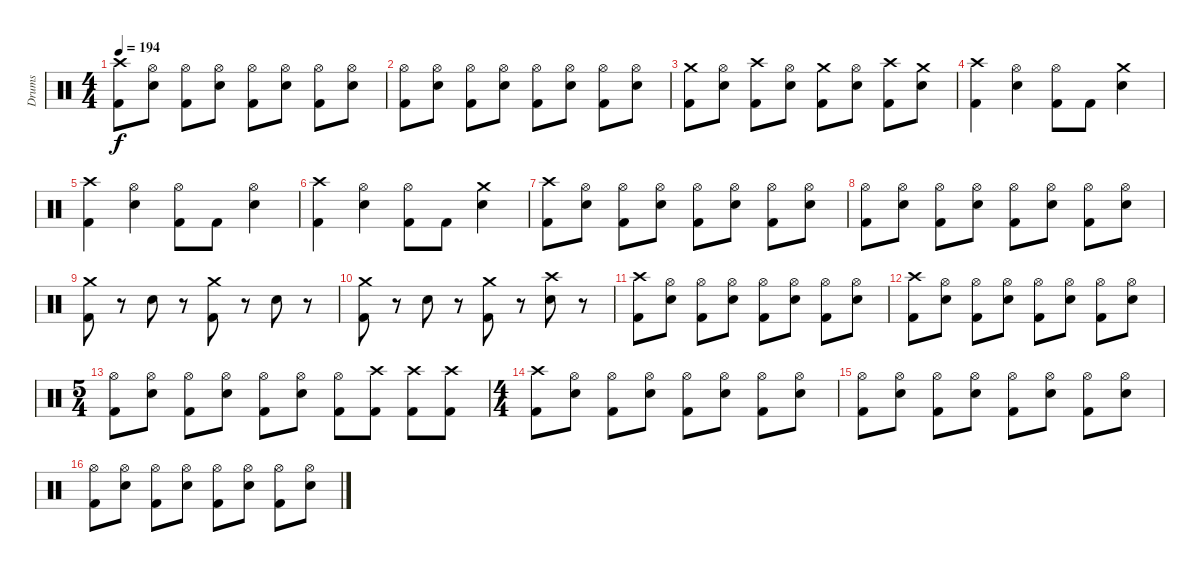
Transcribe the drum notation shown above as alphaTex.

\track ("Drums" "Drums") {instrument percussion}
\staff {score}
\articulation defaults
\ts (4 4)
\tempo 194
\clef neutral
\ks c
("Crash high (hit)" "Kick (hit) 2").8{dy f} ("Hi-Hat (open)" "Snare (hit) 2").8 ("Hi-Hat (open)" "Kick (hit) 2").8 ("Hi-Hat (open)" "Snare (hit) 2").8 ("Hi-Hat (open)" "Kick (hit) 2").8 ("Hi-Hat (open)" "Snare (hit) 2").8 ("Hi-Hat (open)" "Kick (hit) 2").8 ("Hi-Hat (open)" "Snare (hit) 2").8 |
("Hi-Hat (open)" "Kick (hit) 2").8 ("Hi-Hat (open)" "Snare (hit) 2").8 ("Hi-Hat (open)" "Kick (hit) 2").8 ("Hi-Hat (open)" "Snare (hit) 2").8 ("Hi-Hat (open)" "Kick (hit) 2").8 ("Hi-Hat (open)" "Snare (hit) 2").8 ("Hi-Hat (open)" "Kick (hit) 2").8 ("Hi-Hat (open)" "Snare (hit) 2").8 |
("Crash medium (hit)" "Kick (hit) 2").8 ("Hi-Hat (open)" "Snare (hit) 2").8 ("Crash high (hit)" "Kick (hit) 2").8 ("Hi-Hat (open)" "Snare (hit) 2").8 ("Crash medium (hit)" "Kick (hit) 2").8 ("Hi-Hat (open)" "Snare (hit) 2").8 ("Crash high (hit)" "Kick (hit) 2").8 ("Crash medium (hit)" "Snare (hit) 2").8 |
("Crash high (hit)" "Kick (hit) 2").4 ("Hi-Hat (open)" "Snare (hit) 2").4 ("Hi-Hat (open)" "Kick (hit) 2").8 "Kick (hit) 2".8 ("Crash medium (hit)" "Snare (hit) 2").4 |
("Crash high (hit)" "Kick (hit) 2").4 ("Hi-Hat (open)" "Snare (hit) 2").4 ("Hi-Hat (open)" "Kick (hit) 2").8 "Kick (hit) 2".8 ("Hi-Hat (open)" "Snare (hit) 2").4 |
("Crash high (hit)" "Kick (hit) 2").4 ("Hi-Hat (open)" "Snare (hit) 2").4 ("Hi-Hat (open)" "Kick (hit) 2").8 "Kick (hit) 2".8 ("Crash medium (hit)" "Snare (hit) 2").4 |
("Crash high (hit)" "Kick (hit) 2").8 ("Hi-Hat (open)" "Snare (hit) 2").8 ("Hi-Hat (open)" "Kick (hit) 2").8 ("Hi-Hat (open)" "Snare (hit) 2").8 ("Hi-Hat (open)" "Kick (hit) 2").8 ("Hi-Hat (open)" "Snare (hit) 2").8 ("Hi-Hat (open)" "Kick (hit) 2").8 ("Hi-Hat (open)" "Snare (hit) 2").8 |
("Hi-Hat (open)" "Kick (hit) 2").8 ("Hi-Hat (open)" "Snare (hit) 2").8 ("Hi-Hat (open)" "Kick (hit) 2").8 ("Hi-Hat (open)" "Snare (hit) 2").8 ("Hi-Hat (open)" "Kick (hit) 2").8 ("Hi-Hat (open)" "Snare (hit) 2").8 ("Hi-Hat (open)" "Kick (hit) 2").8 ("Hi-Hat (open)" "Snare (hit) 2").8 |
("Crash medium (hit)" "Kick (hit) 2").8 r.8 "Snare (hit) 2".8 r.8 ("Crash medium (hit)" "Kick (hit) 2").8 r.8 "Snare (hit) 2".8 r.8 |
("Crash medium (hit)" "Kick (hit) 2").8 r.8 "Snare (hit) 2".8 r.8 ("Crash medium (hit)" "Kick (hit) 2").8 r.8 ("Crash high (hit)" "Snare (hit) 2").8 r.8 |
("Crash high (hit)" "Kick (hit) 2").8 ("Hi-Hat (open)" "Snare (hit) 2").8 ("Hi-Hat (open)" "Kick (hit) 2").8 ("Hi-Hat (open)" "Snare (hit) 2").8 ("Hi-Hat (open)" "Kick (hit) 2").8 ("Hi-Hat (open)" "Snare (hit) 2").8 ("Hi-Hat (open)" "Kick (hit) 2").8 ("Hi-Hat (open)" "Snare (hit) 2").8 |
("Crash high (hit)" "Kick (hit) 2").8 ("Hi-Hat (open)" "Snare (hit) 2").8 ("Hi-Hat (open)" "Kick (hit) 2").8 ("Hi-Hat (open)" "Snare (hit) 2").8 ("Hi-Hat (open)" "Kick (hit) 2").8 ("Hi-Hat (open)" "Snare (hit) 2").8 ("Hi-Hat (open)" "Kick (hit) 2").8 ("Hi-Hat (open)" "Snare (hit) 2").8 |
\ts (5 4)
("Hi-Hat (open)" "Kick (hit) 2").8 ("Hi-Hat (open)" "Snare (hit) 2").8 ("Hi-Hat (open)" "Kick (hit) 2").8 ("Hi-Hat (open)" "Snare (hit) 2").8 ("Hi-Hat (open)" "Kick (hit) 2").8 ("Hi-Hat (open)" "Snare (hit) 2").8 ("Hi-Hat (open)" "Kick (hit) 2").8 ("Crash high (hit)" "Kick (hit) 2").8 ("Crash high (hit)" "Kick (hit) 2").8 ("Crash high (hit)" "Kick (hit) 2").8 |
\ts (4 4)
("Crash high (hit)" "Kick (hit) 2").8 ("Hi-Hat (open)" "Snare (hit) 2").8 ("Hi-Hat (open)" "Kick (hit) 2").8 ("Hi-Hat (open)" "Snare (hit) 2").8 ("Hi-Hat (open)" "Kick (hit) 2").8 ("Hi-Hat (open)" "Snare (hit) 2").8 ("Hi-Hat (open)" "Kick (hit) 2").8 ("Hi-Hat (open)" "Snare (hit) 2").8 |
("Hi-Hat (open)" "Kick (hit) 2").8 ("Hi-Hat (open)" "Snare (hit) 2").8 ("Hi-Hat (open)" "Kick (hit) 2").8 ("Hi-Hat (open)" "Snare (hit) 2").8 ("Hi-Hat (open)" "Kick (hit) 2").8 ("Hi-Hat (open)" "Snare (hit) 2").8 ("Hi-Hat (open)" "Kick (hit) 2").8 ("Hi-Hat (open)" "Snare (hit) 2").8 |
("Hi-Hat (open)" "Kick (hit) 2").8 ("Hi-Hat (open)" "Snare (hit) 2").8 ("Hi-Hat (open)" "Kick (hit) 2").8 ("Hi-Hat (open)" "Snare (hit) 2").8 ("Hi-Hat (open)" "Kick (hit) 2").8 ("Hi-Hat (open)" "Snare (hit) 2").8 ("Hi-Hat (open)" "Kick (hit) 2").8 ("Hi-Hat (open)" "Snare (hit) 2").8
